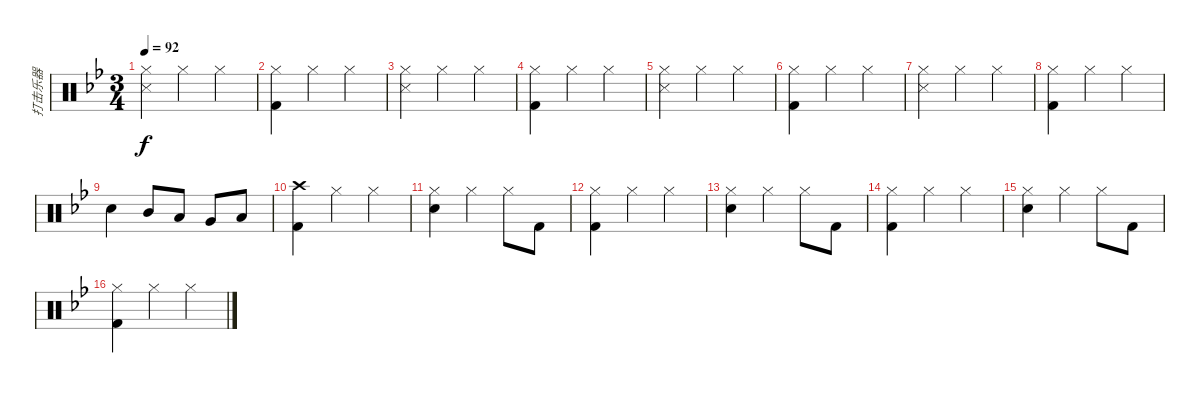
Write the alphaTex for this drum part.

\track ("打击乐器" "打击乐器") {instrument percussion}
\staff {score}
\articulation defaults
\ts (3 4)
\tempo 92
\clef neutral
\ks bb
("Hi-Hat (closed)" "Snare (side stick) 3").4{dy f} "Hi-Hat (closed)".4 "Hi-Hat (closed)".4 |
("Hi-Hat (closed)" "Kick (hit) 2").4 "Hi-Hat (closed)".4 "Hi-Hat (closed)".4 |
("Hi-Hat (closed)" "Snare (side stick) 3").4 "Hi-Hat (closed)".4 "Hi-Hat (closed)".4 |
("Hi-Hat (closed)" "Kick (hit) 2").4 "Hi-Hat (closed)".4 "Hi-Hat (closed)".4 |
("Hi-Hat (closed)" "Snare (side stick) 3").4 "Hi-Hat (closed)".4 "Hi-Hat (closed)".4 |
("Hi-Hat (closed)" "Kick (hit) 2").4 "Hi-Hat (closed)".4 "Hi-Hat (closed)".4 |
("Hi-Hat (closed)" "Snare (side stick) 3").4 "Hi-Hat (closed)".4 "Hi-Hat (closed)".4 |
("Hi-Hat (closed)" "Kick (hit) 2").4 "Hi-Hat (closed)".4 "Hi-Hat (closed)".4 |
"Snare (hit) 2".4 "Mid Tom (hit)".8 "Low Tom (hit)".8 "Very Low Tom (hit)".8 "Low Floor Tom (hit)".8 |
("Crash high (hit)" "Kick (hit) 2").4 "Hi-Hat (closed)".4 "Hi-Hat (closed)".4 |
("Hi-Hat (closed)" "Snare (hit) 2").4 "Hi-Hat (closed)".4 "Hi-Hat (closed)".8 "Kick (hit) 2".8 |
("Hi-Hat (closed)" "Kick (hit) 2").4 "Hi-Hat (closed)".4 "Hi-Hat (closed)".4 |
("Hi-Hat (closed)" "Snare (hit) 2").4 "Hi-Hat (closed)".4 "Hi-Hat (closed)".8 "Kick (hit) 2".8 |
("Hi-Hat (closed)" "Kick (hit) 2").4 "Hi-Hat (closed)".4 "Hi-Hat (closed)".4 |
("Hi-Hat (closed)" "Snare (hit) 2").4 "Hi-Hat (closed)".4 "Hi-Hat (closed)".8 "Kick (hit) 2".8 |
("Hi-Hat (closed)" "Kick (hit) 2").4 "Hi-Hat (closed)".4 "Hi-Hat (closed)".4
